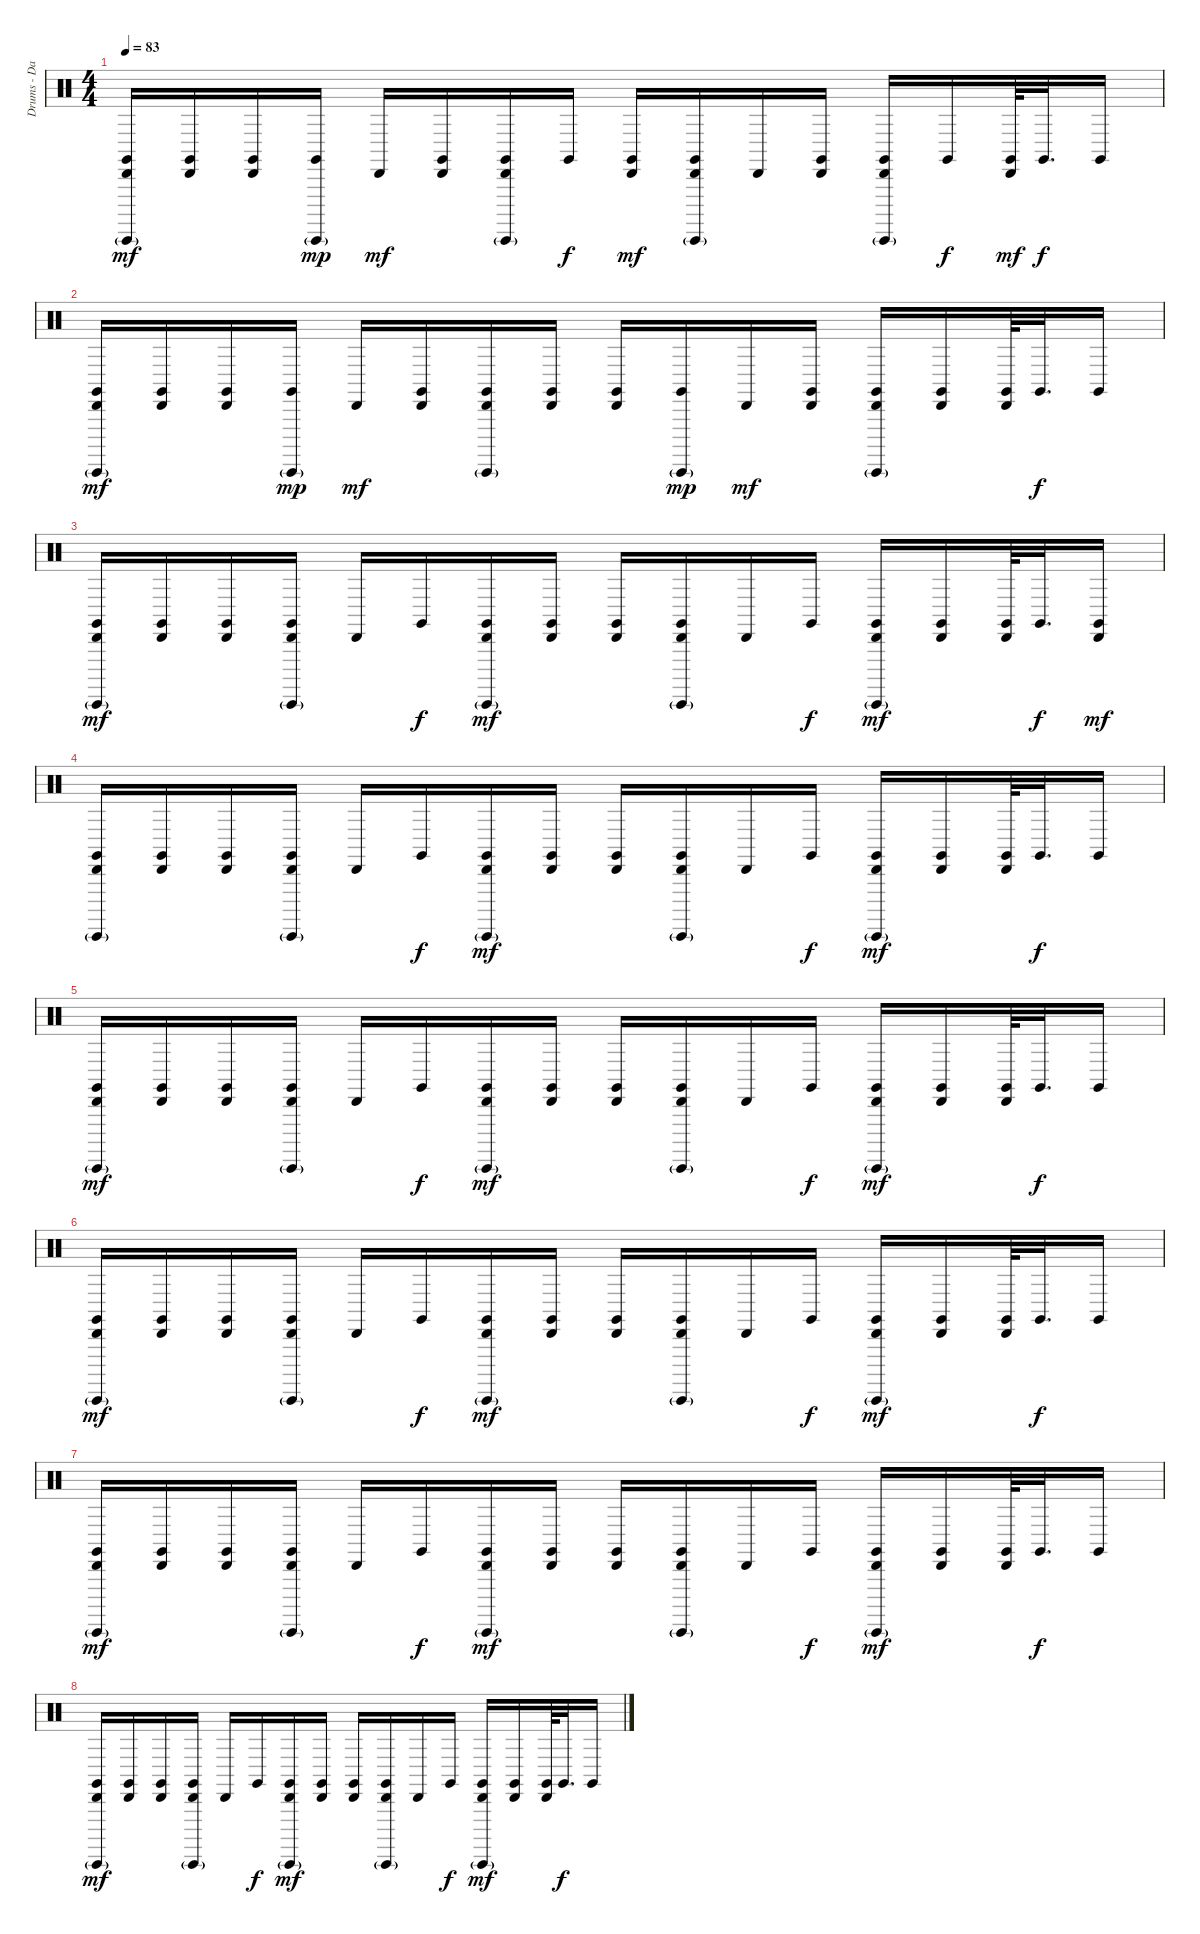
\track ("Drums - Danny Carey" "Drums - Da") {instrument percussion}
\staff {score}
\articulation defaults
\ts (4 4)
\tempo 83
\clef neutral
\ks c
("Claves (hit)" "Guiro (hit)"{g} "Cabasa (hit)").16{dy mf} ("Claves (hit)" "Cabasa (hit)").16 ("Claves (hit)" "Cabasa (hit)").16 ("Claves (hit)" "Guiro (hit)"{g}).16{dy mp} "Cabasa (hit)".16{dy mf} ("Claves (hit)" "Cabasa (hit)").16 ("Claves (hit)" "Guiro (hit)"{g} "Cabasa (hit)").16 "Claves (hit)".16{dy f} ("Claves (hit)" "Cabasa (hit)").16{dy mf} ("Claves (hit)" "Guiro (hit)"{g} "Cabasa (hit)").16 "Cabasa (hit)".16 ("Claves (hit)" "Cabasa (hit)").16 ("Claves (hit)" "Guiro (hit)"{g} "Cabasa (hit)").16 "Claves (hit)".16{dy f} ("Claves (hit)" "Cabasa (hit)").64{dy mf} "Claves (hit)".32{d dy f} "Claves (hit)".16 |
("Claves (hit)" "Guiro (hit)"{g} "Cabasa (hit)").16{dy mf} ("Claves (hit)" "Cabasa (hit)").16 ("Claves (hit)" "Cabasa (hit)").16 ("Claves (hit)" "Guiro (hit)"{g}).16{dy mp} "Cabasa (hit)".16{dy mf} ("Claves (hit)" "Cabasa (hit)").16 ("Claves (hit)" "Guiro (hit)"{g} "Cabasa (hit)").16 ("Claves (hit)" "Cabasa (hit)").16 ("Claves (hit)" "Cabasa (hit)").16 ("Claves (hit)" "Guiro (hit)"{g}).16{dy mp} "Cabasa (hit)".16{dy mf} ("Claves (hit)" "Cabasa (hit)").16 ("Claves (hit)" "Guiro (hit)"{g} "Cabasa (hit)").16 ("Claves (hit)" "Cabasa (hit)").16 ("Claves (hit)" "Cabasa (hit)").64 "Claves (hit)".32{d dy f} "Claves (hit)".16 |
("Claves (hit)" "Guiro (hit)"{g} "Cabasa (hit)").16{dy mf} ("Claves (hit)" "Cabasa (hit)").16 ("Claves (hit)" "Cabasa (hit)").16 ("Claves (hit)" "Guiro (hit)"{g} "Cabasa (hit)").16 "Cabasa (hit)".16 "Claves (hit)".16{dy f} ("Claves (hit)" "Guiro (hit)"{g} "Cabasa (hit)").16{dy mf} ("Claves (hit)" "Cabasa (hit)").16 ("Claves (hit)" "Cabasa (hit)").16 ("Claves (hit)" "Guiro (hit)"{g} "Cabasa (hit)").16 "Cabasa (hit)".16 "Claves (hit)".16{dy f} ("Claves (hit)" "Guiro (hit)"{g} "Cabasa (hit)").16{dy mf} ("Claves (hit)" "Cabasa (hit)").16 ("Claves (hit)" "Cabasa (hit)").64 "Claves (hit)".32{d dy f} ("Claves (hit)" "Cabasa (hit)").16{dy mf} |
("Claves (hit)" "Guiro (hit)"{g} "Cabasa (hit)").16 ("Claves (hit)" "Cabasa (hit)").16 ("Claves (hit)" "Cabasa (hit)").16 ("Claves (hit)" "Guiro (hit)"{g} "Cabasa (hit)").16 "Cabasa (hit)".16 "Claves (hit)".16{dy f} ("Claves (hit)" "Guiro (hit)"{g} "Cabasa (hit)").16{dy mf} ("Claves (hit)" "Cabasa (hit)").16 ("Claves (hit)" "Cabasa (hit)").16 ("Claves (hit)" "Guiro (hit)"{g} "Cabasa (hit)").16 "Cabasa (hit)".16 "Claves (hit)".16{dy f} ("Claves (hit)" "Guiro (hit)"{g} "Cabasa (hit)").16{dy mf} ("Claves (hit)" "Cabasa (hit)").16 ("Claves (hit)" "Cabasa (hit)").64 "Claves (hit)".32{d dy f} "Claves (hit)".16 |
("Claves (hit)" "Guiro (hit)"{g} "Cabasa (hit)").16{dy mf} ("Claves (hit)" "Cabasa (hit)").16 ("Claves (hit)" "Cabasa (hit)").16 ("Claves (hit)" "Guiro (hit)"{g} "Cabasa (hit)").16 "Cabasa (hit)".16 "Claves (hit)".16{dy f} ("Claves (hit)" "Guiro (hit)"{g} "Cabasa (hit)").16{dy mf} ("Claves (hit)" "Cabasa (hit)").16 ("Claves (hit)" "Cabasa (hit)").16 ("Claves (hit)" "Guiro (hit)"{g} "Cabasa (hit)").16 "Cabasa (hit)".16 "Claves (hit)".16{dy f} ("Claves (hit)" "Guiro (hit)"{g} "Cabasa (hit)").16{dy mf} ("Claves (hit)" "Cabasa (hit)").16 ("Claves (hit)" "Cabasa (hit)").64 "Claves (hit)".32{d dy f} "Claves (hit)".16 |
("Claves (hit)" "Guiro (hit)"{g} "Cabasa (hit)").16{dy mf} ("Claves (hit)" "Cabasa (hit)").16 ("Claves (hit)" "Cabasa (hit)").16 ("Claves (hit)" "Guiro (hit)"{g} "Cabasa (hit)").16 "Cabasa (hit)".16 "Claves (hit)".16{dy f} ("Claves (hit)" "Guiro (hit)"{g} "Cabasa (hit)").16{dy mf} ("Claves (hit)" "Cabasa (hit)").16 ("Claves (hit)" "Cabasa (hit)").16 ("Claves (hit)" "Guiro (hit)"{g} "Cabasa (hit)").16 "Cabasa (hit)".16 "Claves (hit)".16{dy f} ("Claves (hit)" "Guiro (hit)"{g} "Cabasa (hit)").16{dy mf} ("Claves (hit)" "Cabasa (hit)").16 ("Claves (hit)" "Cabasa (hit)").64 "Claves (hit)".32{d dy f} "Claves (hit)".16 |
("Claves (hit)" "Guiro (hit)"{g} "Cabasa (hit)").16{dy mf} ("Claves (hit)" "Cabasa (hit)").16 ("Claves (hit)" "Cabasa (hit)").16 ("Claves (hit)" "Guiro (hit)"{g} "Cabasa (hit)").16 "Cabasa (hit)".16 "Claves (hit)".16{dy f} ("Claves (hit)" "Guiro (hit)"{g} "Cabasa (hit)").16{dy mf} ("Claves (hit)" "Cabasa (hit)").16 ("Claves (hit)" "Cabasa (hit)").16 ("Claves (hit)" "Guiro (hit)"{g} "Cabasa (hit)").16 "Cabasa (hit)".16 "Claves (hit)".16{dy f} ("Claves (hit)" "Guiro (hit)"{g} "Cabasa (hit)").16{dy mf} ("Claves (hit)" "Cabasa (hit)").16 ("Claves (hit)" "Cabasa (hit)").64 "Claves (hit)".32{d dy f} "Claves (hit)".16 |
("Claves (hit)" "Guiro (hit)"{g} "Cabasa (hit)").16{dy mf} ("Claves (hit)" "Cabasa (hit)").16 ("Claves (hit)" "Cabasa (hit)").16 ("Claves (hit)" "Guiro (hit)"{g} "Cabasa (hit)").16 "Cabasa (hit)".16 "Claves (hit)".16{dy f} ("Claves (hit)" "Guiro (hit)"{g} "Cabasa (hit)").16{dy mf} ("Claves (hit)" "Cabasa (hit)").16 ("Claves (hit)" "Cabasa (hit)").16 ("Claves (hit)" "Guiro (hit)"{g} "Cabasa (hit)").16 "Cabasa (hit)".16 "Claves (hit)".16{dy f} ("Claves (hit)" "Guiro (hit)"{g} "Cabasa (hit)").16{dy mf} ("Claves (hit)" "Cabasa (hit)").16 ("Claves (hit)" "Cabasa (hit)").64 "Claves (hit)".32{d dy f} "Claves (hit)".16
